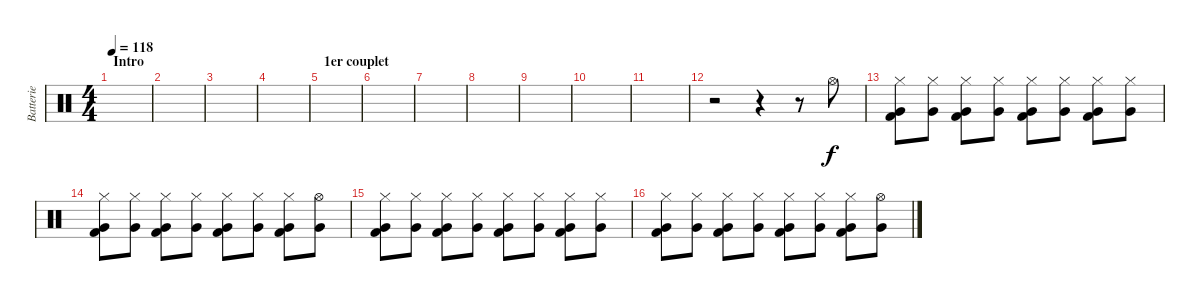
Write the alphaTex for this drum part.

\track ("Batterie" "Batterie") {instrument percussion}
\staff {score}
\articulation defaults
\ts (4 4)
\section ("" "Intro")
\tempo 118
\clef neutral
\ks c
|
|
|
|
\section ("" "1er couplet")
|
|
|
|
|
|
|
r.2 r.4 r.8 "Hi-Hat (open)".8 |
("Hi-Hat (closed)" "Very Low Tom (hit)" "Kick (hit) 2").8 ("Hi-Hat (closed)" "Very Low Tom (hit)").8 ("Hi-Hat (closed)" "Very Low Tom (hit)" "Kick (hit) 2").8 ("Hi-Hat (closed)" "Very Low Tom (hit)").8 ("Hi-Hat (closed)" "Very Low Tom (hit)" "Kick (hit) 2").8 ("Hi-Hat (closed)" "Very Low Tom (hit)").8 ("Hi-Hat (closed)" "Very Low Tom (hit)" "Kick (hit) 2").8 ("Hi-Hat (closed)" "Very Low Tom (hit)").8 |
("Hi-Hat (closed)" "Very Low Tom (hit)" "Kick (hit) 2").8 ("Hi-Hat (closed)" "Very Low Tom (hit)").8 ("Hi-Hat (closed)" "Very Low Tom (hit)" "Kick (hit) 2").8 ("Hi-Hat (closed)" "Very Low Tom (hit)").8 ("Hi-Hat (closed)" "Very Low Tom (hit)" "Kick (hit) 2").8 ("Hi-Hat (closed)" "Very Low Tom (hit)").8 ("Hi-Hat (closed)" "Very Low Tom (hit)" "Kick (hit) 2").8 ("Hi-Hat (open)" "Very Low Tom (hit)").8 |
("Hi-Hat (closed)" "Very Low Tom (hit)" "Kick (hit) 2").8 ("Hi-Hat (closed)" "Very Low Tom (hit)").8 ("Hi-Hat (closed)" "Very Low Tom (hit)" "Kick (hit) 2").8 ("Hi-Hat (closed)" "Very Low Tom (hit)").8 ("Hi-Hat (closed)" "Very Low Tom (hit)" "Kick (hit) 2").8 ("Hi-Hat (closed)" "Very Low Tom (hit)").8 ("Hi-Hat (closed)" "Very Low Tom (hit)" "Kick (hit) 2").8 ("Hi-Hat (closed)" "Very Low Tom (hit)").8 |
("Hi-Hat (closed)" "Very Low Tom (hit)" "Kick (hit) 2").8 ("Hi-Hat (closed)" "Very Low Tom (hit)").8 ("Hi-Hat (closed)" "Very Low Tom (hit)" "Kick (hit) 2").8 ("Hi-Hat (closed)" "Very Low Tom (hit)").8 ("Hi-Hat (closed)" "Very Low Tom (hit)" "Kick (hit) 2").8 ("Hi-Hat (closed)" "Very Low Tom (hit)").8 ("Hi-Hat (closed)" "Very Low Tom (hit)" "Kick (hit) 2").8 ("Hi-Hat (open)" "Very Low Tom (hit)").8
